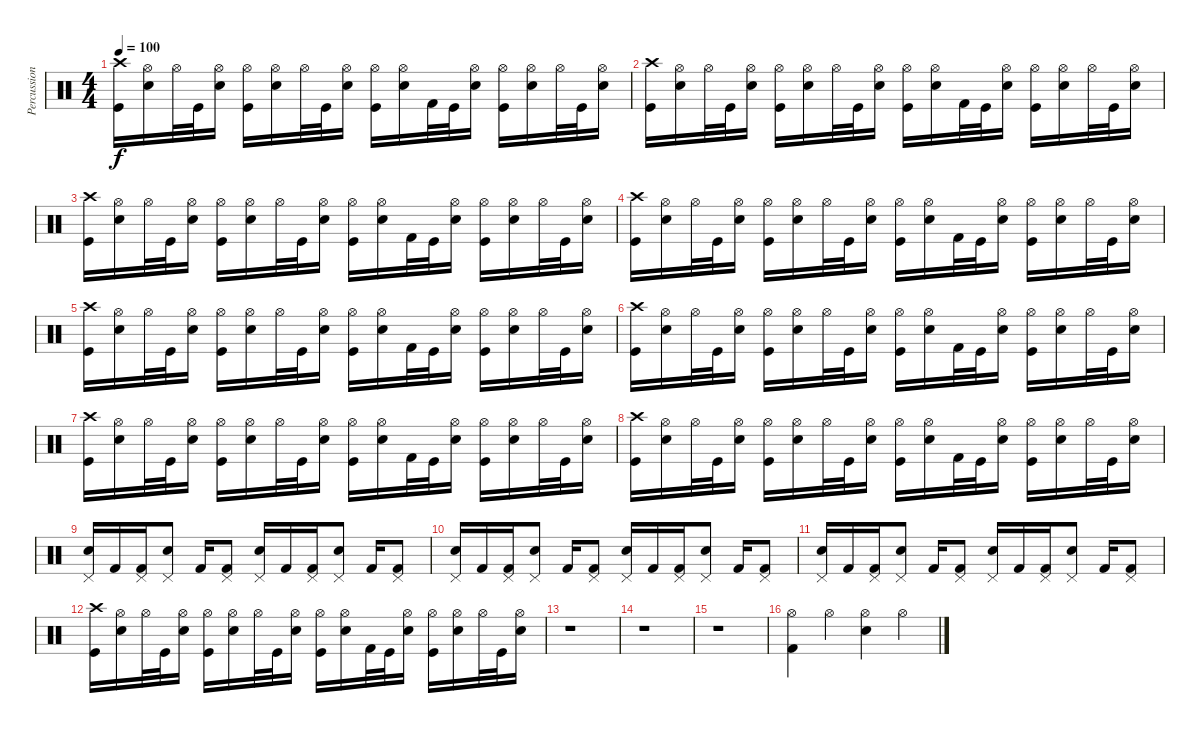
\track ("Percussion" "Percussion") {instrument percussion}
\staff {score}
\articulation defaults
\ts (4 4)
\tempo 100
\clef neutral
\ks c
("Crash high (hit)" "Kick (hit)").16{dy f} ("Hi-Hat (open)" "Snare (hit) 2").16 "Hi-Hat (open)".32 "Kick (hit)".32 ("Hi-Hat (open)" "Snare (hit) 2").16 ("Hi-Hat (open)" "Kick (hit)").16 ("Hi-Hat (open)" "Snare (hit) 2").16 "Hi-Hat (open)".32 "Kick (hit)".32 ("Hi-Hat (open)" "Snare (hit) 2").16 ("Hi-Hat (open)" "Kick (hit)").16 ("Hi-Hat (open)" "Snare (hit) 2").16 "Kick (hit) 2".32 "Kick (hit)".32 ("Hi-Hat (open)" "Snare (hit) 2").16 ("Hi-Hat (open)" "Kick (hit)").16 ("Hi-Hat (open)" "Snare (hit) 2").16 "Hi-Hat (open)".32 "Kick (hit)".32 ("Hi-Hat (open)" "Snare (hit) 2").16 |
("Crash high (hit)" "Kick (hit)").16 ("Hi-Hat (open)" "Snare (hit) 2").16 "Hi-Hat (open)".32 "Kick (hit)".32 ("Hi-Hat (open)" "Snare (hit) 2").16 ("Hi-Hat (open)" "Kick (hit)").16 ("Hi-Hat (open)" "Snare (hit) 2").16 "Hi-Hat (open)".32 "Kick (hit)".32 ("Hi-Hat (open)" "Snare (hit) 2").16 ("Hi-Hat (open)" "Kick (hit)").16 ("Hi-Hat (open)" "Snare (hit) 2").16 "Kick (hit) 2".32 "Kick (hit)".32 ("Hi-Hat (open)" "Snare (hit) 2").16 ("Hi-Hat (open)" "Kick (hit)").16 ("Hi-Hat (open)" "Snare (hit) 2").16 "Hi-Hat (open)".32 "Kick (hit)".32 ("Hi-Hat (open)" "Snare (hit) 2").16 |
("Crash high (hit)" "Kick (hit)").16 ("Hi-Hat (open)" "Snare (hit) 2").16 "Hi-Hat (open)".32 "Kick (hit)".32 ("Hi-Hat (open)" "Snare (hit) 2").16 ("Hi-Hat (open)" "Kick (hit)").16 ("Hi-Hat (open)" "Snare (hit) 2").16 "Hi-Hat (open)".32 "Kick (hit)".32 ("Hi-Hat (open)" "Snare (hit) 2").16 ("Hi-Hat (open)" "Kick (hit)").16 ("Hi-Hat (open)" "Snare (hit) 2").16 "Kick (hit) 2".32 "Kick (hit)".32 ("Hi-Hat (open)" "Snare (hit) 2").16 ("Hi-Hat (open)" "Kick (hit)").16 ("Hi-Hat (open)" "Snare (hit) 2").16 "Hi-Hat (open)".32 "Kick (hit)".32 ("Hi-Hat (open)" "Snare (hit) 2").16 |
("Crash high (hit)" "Kick (hit)").16 ("Hi-Hat (open)" "Snare (hit) 2").16 "Hi-Hat (open)".32 "Kick (hit)".32 ("Hi-Hat (open)" "Snare (hit) 2").16 ("Hi-Hat (open)" "Kick (hit)").16 ("Hi-Hat (open)" "Snare (hit) 2").16 "Hi-Hat (open)".32 "Kick (hit)".32 ("Hi-Hat (open)" "Snare (hit) 2").16 ("Hi-Hat (open)" "Kick (hit)").16 ("Hi-Hat (open)" "Snare (hit) 2").16 "Kick (hit) 2".32 "Kick (hit)".32 ("Hi-Hat (open)" "Snare (hit) 2").16 ("Hi-Hat (open)" "Kick (hit)").16 ("Hi-Hat (open)" "Snare (hit) 2").16 "Hi-Hat (open)".32 "Kick (hit)".32 ("Hi-Hat (open)" "Snare (hit) 2").16 |
("Crash high (hit)" "Kick (hit)").16 ("Hi-Hat (open)" "Snare (hit) 2").16 "Hi-Hat (open)".32 "Kick (hit)".32 ("Hi-Hat (open)" "Snare (hit) 2").16 ("Hi-Hat (open)" "Kick (hit)").16 ("Hi-Hat (open)" "Snare (hit) 2").16 "Hi-Hat (open)".32 "Kick (hit)".32 ("Hi-Hat (open)" "Snare (hit) 2").16 ("Hi-Hat (open)" "Kick (hit)").16 ("Hi-Hat (open)" "Snare (hit) 2").16 "Kick (hit) 2".32 "Kick (hit)".32 ("Hi-Hat (open)" "Snare (hit) 2").16 ("Hi-Hat (open)" "Kick (hit)").16 ("Hi-Hat (open)" "Snare (hit) 2").16 "Hi-Hat (open)".32 "Kick (hit)".32 ("Hi-Hat (open)" "Snare (hit) 2").16 |
("Crash high (hit)" "Kick (hit)").16 ("Hi-Hat (open)" "Snare (hit) 2").16 "Hi-Hat (open)".32 "Kick (hit)".32 ("Hi-Hat (open)" "Snare (hit) 2").16 ("Hi-Hat (open)" "Kick (hit)").16 ("Hi-Hat (open)" "Snare (hit) 2").16 "Hi-Hat (open)".32 "Kick (hit)".32 ("Hi-Hat (open)" "Snare (hit) 2").16 ("Hi-Hat (open)" "Kick (hit)").16 ("Hi-Hat (open)" "Snare (hit) 2").16 "Kick (hit) 2".32 "Kick (hit)".32 ("Hi-Hat (open)" "Snare (hit) 2").16 ("Hi-Hat (open)" "Kick (hit)").16 ("Hi-Hat (open)" "Snare (hit) 2").16 "Hi-Hat (open)".32 "Kick (hit)".32 ("Hi-Hat (open)" "Snare (hit) 2").16 |
("Crash high (hit)" "Kick (hit)").16 ("Hi-Hat (open)" "Snare (hit) 2").16 "Hi-Hat (open)".32 "Kick (hit)".32 ("Hi-Hat (open)" "Snare (hit) 2").16 ("Hi-Hat (open)" "Kick (hit)").16 ("Hi-Hat (open)" "Snare (hit) 2").16 "Hi-Hat (open)".32 "Kick (hit)".32 ("Hi-Hat (open)" "Snare (hit) 2").16 ("Hi-Hat (open)" "Kick (hit)").16 ("Hi-Hat (open)" "Snare (hit) 2").16 "Kick (hit) 2".32 "Kick (hit)".32 ("Hi-Hat (open)" "Snare (hit) 2").16 ("Hi-Hat (open)" "Kick (hit)").16 ("Hi-Hat (open)" "Snare (hit) 2").16 "Hi-Hat (open)".32 "Kick (hit)".32 ("Hi-Hat (open)" "Snare (hit) 2").16 |
("Crash high (hit)" "Kick (hit)").16 ("Hi-Hat (open)" "Snare (hit) 2").16 "Hi-Hat (open)".32 "Kick (hit)".32 ("Hi-Hat (open)" "Snare (hit) 2").16 ("Hi-Hat (open)" "Kick (hit)").16 ("Hi-Hat (open)" "Snare (hit) 2").16 "Hi-Hat (open)".32 "Kick (hit)".32 ("Hi-Hat (open)" "Snare (hit) 2").16 ("Hi-Hat (open)" "Kick (hit)").16 ("Hi-Hat (open)" "Snare (hit) 2").16 "Kick (hit) 2".32 "Kick (hit)".32 ("Hi-Hat (open)" "Snare (hit) 2").16 ("Hi-Hat (open)" "Kick (hit)").16 ("Hi-Hat (open)" "Snare (hit) 2").16 "Hi-Hat (open)".32 "Kick (hit)".32 ("Hi-Hat (open)" "Snare (hit) 2").16 |
("Pedal Hi-Hat (hit)" "Snare (hit) 2").16 "Kick (hit) 2".16 ("Pedal Hi-Hat (hit)" "Kick (hit) 2").16 ("Pedal Hi-Hat (hit)" "Snare (hit) 2").8 "Kick (hit) 2".16 ("Pedal Hi-Hat (hit)" "Kick (hit) 2").8 ("Pedal Hi-Hat (hit)" "Snare (hit) 2").16 "Kick (hit) 2".16 ("Pedal Hi-Hat (hit)" "Kick (hit) 2").16 ("Pedal Hi-Hat (hit)" "Snare (hit) 2").8 "Kick (hit) 2".16 ("Pedal Hi-Hat (hit)" "Kick (hit) 2").8 |
("Pedal Hi-Hat (hit)" "Snare (hit) 2").16 "Kick (hit) 2".16 ("Pedal Hi-Hat (hit)" "Kick (hit) 2").16 ("Pedal Hi-Hat (hit)" "Snare (hit) 2").8 "Kick (hit) 2".16 ("Pedal Hi-Hat (hit)" "Kick (hit) 2").8 ("Pedal Hi-Hat (hit)" "Snare (hit) 2").16 "Kick (hit) 2".16 ("Pedal Hi-Hat (hit)" "Kick (hit) 2").16 ("Pedal Hi-Hat (hit)" "Snare (hit) 2").8 "Kick (hit) 2".16 ("Pedal Hi-Hat (hit)" "Kick (hit) 2").8 |
("Pedal Hi-Hat (hit)" "Snare (hit) 2").16 "Kick (hit) 2".16 ("Pedal Hi-Hat (hit)" "Kick (hit) 2").16 ("Pedal Hi-Hat (hit)" "Snare (hit) 2").8 "Kick (hit) 2".16 ("Pedal Hi-Hat (hit)" "Kick (hit) 2").8 ("Pedal Hi-Hat (hit)" "Snare (hit) 2").16 "Kick (hit) 2".16 ("Pedal Hi-Hat (hit)" "Kick (hit) 2").16 ("Pedal Hi-Hat (hit)" "Snare (hit) 2").8 "Kick (hit) 2".16 ("Pedal Hi-Hat (hit)" "Kick (hit) 2").8 |
("Crash high (hit)" "Kick (hit)").16 ("Hi-Hat (open)" "Snare (hit) 2").16 "Hi-Hat (open)".32 "Kick (hit)".32 ("Hi-Hat (open)" "Snare (hit) 2").16 ("Hi-Hat (open)" "Kick (hit)").16 ("Hi-Hat (open)" "Snare (hit) 2").16 "Hi-Hat (open)".32 "Kick (hit)".32 ("Hi-Hat (open)" "Snare (hit) 2").16 ("Hi-Hat (open)" "Kick (hit)").16 ("Hi-Hat (open)" "Snare (hit) 2").16 "Kick (hit) 2".32 "Kick (hit)".32 ("Hi-Hat (open)" "Snare (hit) 2").16 ("Hi-Hat (open)" "Kick (hit)").16 ("Hi-Hat (open)" "Snare (hit) 2").16 "Hi-Hat (open)".32 "Kick (hit)".32 ("Hi-Hat (open)" "Snare (hit) 2").16 |
r.1 |
r.1 |
r.1 |
("Hi-Hat (open)" "Kick (hit) 2").4 "Hi-Hat (open)".4 ("Hi-Hat (open)" "Snare (hit) 2").4 "Hi-Hat (open)".4
